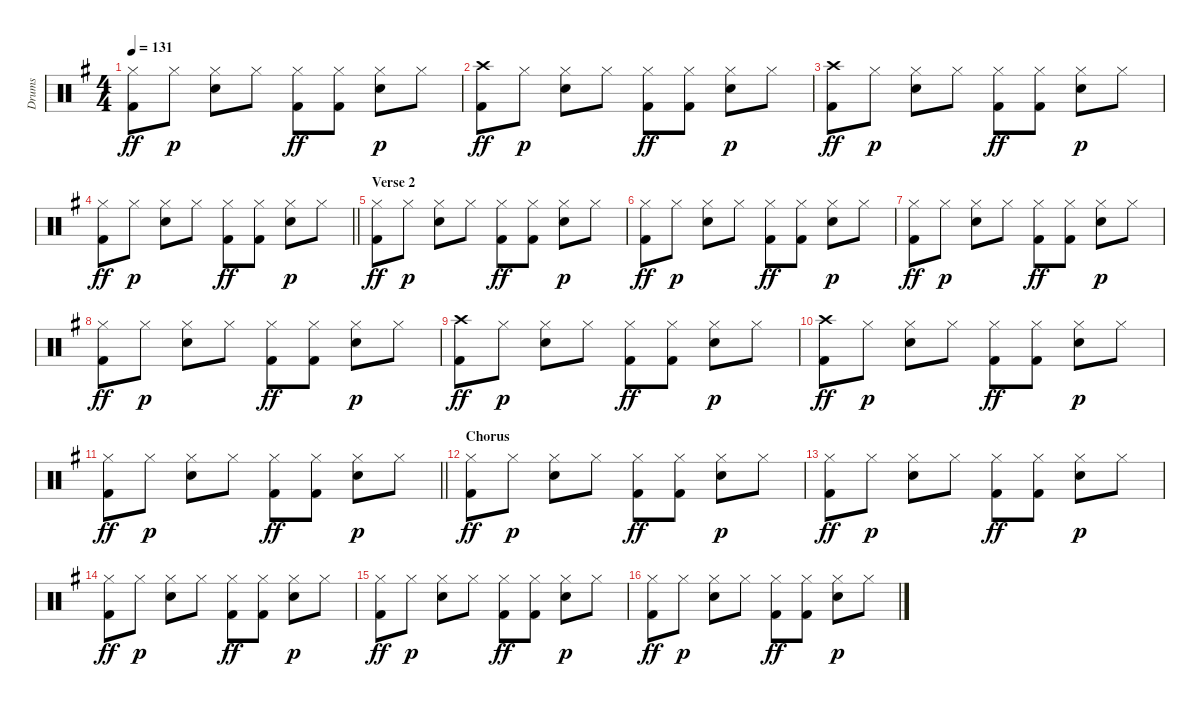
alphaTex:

\track ("Drums" "Drums") {instrument percussion}
\staff {score}
\articulation defaults
\ts (4 4)
\tempo 131
\clef neutral
\ks g
("Hi-Hat (closed)" "Kick (hit) 2").8{dy ff} "Hi-Hat (closed)".8{dy p} ("Hi-Hat (closed)" "Snare (hit) 2").8 "Hi-Hat (closed)".8 ("Hi-Hat (closed)" "Kick (hit) 2").8{dy ff} ("Hi-Hat (closed)" "Kick (hit) 2").8 ("Hi-Hat (closed)" "Snare (hit) 2").8{dy p} "Hi-Hat (closed)".8 |
("Crash high (hit)" "Kick (hit) 2").8{dy ff} "Hi-Hat (closed)".8{dy p} ("Hi-Hat (closed)" "Snare (hit) 2").8 "Hi-Hat (closed)".8 ("Hi-Hat (closed)" "Kick (hit) 2").8{dy ff} ("Hi-Hat (closed)" "Kick (hit) 2").8 ("Hi-Hat (closed)" "Snare (hit) 2").8{dy p} "Hi-Hat (closed)".8 |
("Crash high (hit)" "Kick (hit) 2").8{dy ff} "Hi-Hat (closed)".8{dy p} ("Hi-Hat (closed)" "Snare (hit) 2").8 "Hi-Hat (closed)".8 ("Hi-Hat (closed)" "Kick (hit) 2").8{dy ff} ("Hi-Hat (closed)" "Kick (hit) 2").8 ("Hi-Hat (closed)" "Snare (hit) 2").8{dy p} "Hi-Hat (closed)".8 |
\barLineRight lightlight
("Hi-Hat (closed)" "Kick (hit) 2").8{dy ff} "Hi-Hat (closed)".8{dy p} ("Hi-Hat (closed)" "Snare (hit) 2").8 "Hi-Hat (closed)".8 ("Hi-Hat (closed)" "Kick (hit) 2").8{dy ff} ("Hi-Hat (closed)" "Kick (hit) 2").8 ("Hi-Hat (closed)" "Snare (hit) 2").8{dy p} "Hi-Hat (closed)".8 |
\section ("" "Verse 2")
("Hi-Hat (closed)" "Kick (hit) 2").8{dy ff} "Hi-Hat (closed)".8{dy p} ("Hi-Hat (closed)" "Snare (hit) 2").8 "Hi-Hat (closed)".8 ("Hi-Hat (closed)" "Kick (hit) 2").8{dy ff} ("Hi-Hat (closed)" "Kick (hit) 2").8 ("Hi-Hat (closed)" "Snare (hit) 2").8{dy p} "Hi-Hat (closed)".8 |
("Hi-Hat (closed)" "Kick (hit) 2").8{dy ff} "Hi-Hat (closed)".8{dy p} ("Hi-Hat (closed)" "Snare (hit) 2").8 "Hi-Hat (closed)".8 ("Hi-Hat (closed)" "Kick (hit) 2").8{dy ff} ("Hi-Hat (closed)" "Kick (hit) 2").8 ("Hi-Hat (closed)" "Snare (hit) 2").8{dy p} "Hi-Hat (closed)".8 |
("Hi-Hat (closed)" "Kick (hit) 2").8{dy ff} "Hi-Hat (closed)".8{dy p} ("Hi-Hat (closed)" "Snare (hit) 2").8 "Hi-Hat (closed)".8 ("Hi-Hat (closed)" "Kick (hit) 2").8{dy ff} ("Hi-Hat (closed)" "Kick (hit) 2").8 ("Hi-Hat (closed)" "Snare (hit) 2").8{dy p} "Hi-Hat (closed)".8 |
("Hi-Hat (closed)" "Kick (hit) 2").8{dy ff} "Hi-Hat (closed)".8{dy p} ("Hi-Hat (closed)" "Snare (hit) 2").8 "Hi-Hat (closed)".8 ("Hi-Hat (closed)" "Kick (hit) 2").8{dy ff} ("Hi-Hat (closed)" "Kick (hit) 2").8 ("Hi-Hat (closed)" "Snare (hit) 2").8{dy p} "Hi-Hat (closed)".8 |
("Crash high (hit)" "Kick (hit) 2").8{dy ff} "Hi-Hat (closed)".8{dy p} ("Hi-Hat (closed)" "Snare (hit) 2").8 "Hi-Hat (closed)".8 ("Hi-Hat (closed)" "Kick (hit) 2").8{dy ff} ("Hi-Hat (closed)" "Kick (hit) 2").8 ("Hi-Hat (closed)" "Snare (hit) 2").8{dy p} "Hi-Hat (closed)".8 |
("Crash high (hit)" "Kick (hit) 2").8{dy ff} "Hi-Hat (closed)".8{dy p} ("Hi-Hat (closed)" "Snare (hit) 2").8 "Hi-Hat (closed)".8 ("Hi-Hat (closed)" "Kick (hit) 2").8{dy ff} ("Hi-Hat (closed)" "Kick (hit) 2").8 ("Hi-Hat (closed)" "Snare (hit) 2").8{dy p} "Hi-Hat (closed)".8 |
\barLineRight lightlight
("Hi-Hat (closed)" "Kick (hit) 2").8{dy ff} "Hi-Hat (closed)".8{dy p} ("Hi-Hat (closed)" "Snare (hit) 2").8 "Hi-Hat (closed)".8 ("Hi-Hat (closed)" "Kick (hit) 2").8{dy ff} ("Hi-Hat (closed)" "Kick (hit) 2").8 ("Hi-Hat (closed)" "Snare (hit) 2").8{dy p} "Hi-Hat (closed)".8 |
\section ("" "Chorus")
("Hi-Hat (closed)" "Kick (hit) 2").8{dy ff} "Hi-Hat (closed)".8{dy p} ("Hi-Hat (closed)" "Snare (hit) 2").8 "Hi-Hat (closed)".8 ("Hi-Hat (closed)" "Kick (hit) 2").8{dy ff} ("Hi-Hat (closed)" "Kick (hit) 2").8 ("Hi-Hat (closed)" "Snare (hit) 2").8{dy p} "Hi-Hat (closed)".8 |
("Hi-Hat (closed)" "Kick (hit) 2").8{dy ff} "Hi-Hat (closed)".8{dy p} ("Hi-Hat (closed)" "Snare (hit) 2").8 "Hi-Hat (closed)".8 ("Hi-Hat (closed)" "Kick (hit) 2").8{dy ff} ("Hi-Hat (closed)" "Kick (hit) 2").8 ("Hi-Hat (closed)" "Snare (hit) 2").8{dy p} "Hi-Hat (closed)".8 |
("Hi-Hat (closed)" "Kick (hit) 2").8{dy ff} "Hi-Hat (closed)".8{dy p} ("Hi-Hat (closed)" "Snare (hit) 2").8 "Hi-Hat (closed)".8 ("Hi-Hat (closed)" "Kick (hit) 2").8{dy ff} ("Hi-Hat (closed)" "Kick (hit) 2").8 ("Hi-Hat (closed)" "Snare (hit) 2").8{dy p} "Hi-Hat (closed)".8 |
("Hi-Hat (closed)" "Kick (hit) 2").8{dy ff} "Hi-Hat (closed)".8{dy p} ("Hi-Hat (closed)" "Snare (hit) 2").8 "Hi-Hat (closed)".8 ("Hi-Hat (closed)" "Kick (hit) 2").8{dy ff} ("Hi-Hat (closed)" "Kick (hit) 2").8 ("Hi-Hat (closed)" "Snare (hit) 2").8{dy p} "Hi-Hat (closed)".8 |
("Hi-Hat (closed)" "Kick (hit) 2").8{dy ff} "Hi-Hat (closed)".8{dy p} ("Hi-Hat (closed)" "Snare (hit) 2").8 "Hi-Hat (closed)".8 ("Hi-Hat (closed)" "Kick (hit) 2").8{dy ff} ("Hi-Hat (closed)" "Kick (hit) 2").8 ("Hi-Hat (closed)" "Snare (hit) 2").8{dy p} "Hi-Hat (closed)".8
